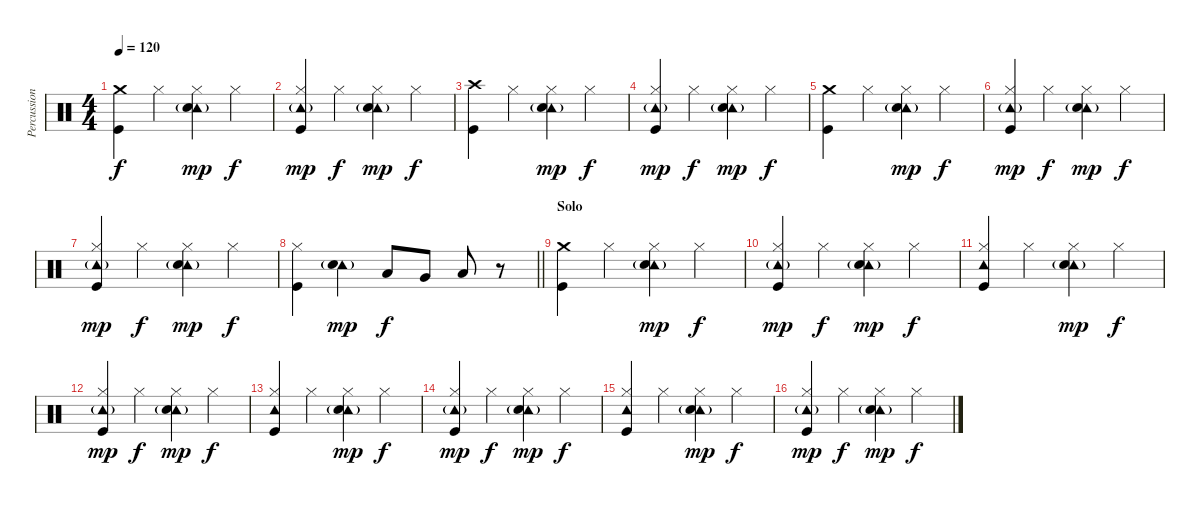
\track ("Percussioni" "Percussion") {instrument percussion}
\staff {score}
\articulation defaults
\ts (4 4)
\tempo 120
\clef neutral
\ks c
("Crash medium (hit)" "Kick (hit)").4{dy f} "Hi-Hat (closed)".4 ("Tambourine (hit)"{g} "Hi-Hat (closed)" "Snare (hit) 2").4{dy mp} "Hi-Hat (closed)".4{dy f} |
("Tambourine (hit)"{g} "Hi-Hat (closed)" "Kick (hit)").4{dy mp} "Hi-Hat (closed)".4{dy f} ("Tambourine (hit)"{g} "Hi-Hat (closed)" "Snare (hit) 2").4{dy mp} "Hi-Hat (closed)".4{dy f} |
("Crash high (hit)" "Kick (hit)").4 "Hi-Hat (closed)".4 ("Tambourine (hit)"{g} "Hi-Hat (closed)" "Snare (hit) 2").4{dy mp} "Hi-Hat (closed)".4{dy f} |
("Tambourine (hit)"{g} "Hi-Hat (closed)" "Kick (hit)").4{dy mp} "Hi-Hat (closed)".4{dy f} ("Tambourine (hit)"{g} "Hi-Hat (closed)" "Snare (hit) 2").4{dy mp} "Hi-Hat (closed)".4{dy f} |
("Crash medium (hit)" "Kick (hit)").4 "Hi-Hat (closed)".4 ("Tambourine (hit)"{g} "Hi-Hat (closed)" "Snare (hit) 2").4{dy mp} "Hi-Hat (closed)".4{dy f} |
("Tambourine (hit)"{g} "Hi-Hat (closed)" "Kick (hit)").4{dy mp} "Hi-Hat (closed)".4{dy f} ("Tambourine (hit)"{g} "Hi-Hat (closed)" "Snare (hit) 2").4{dy mp} "Hi-Hat (closed)".4{dy f} |
("Tambourine (hit)"{g} "Hi-Hat (closed)" "Kick (hit)").4{dy mp} "Hi-Hat (closed)".4{dy f} ("Tambourine (hit)"{g} "Hi-Hat (closed)" "Snare (hit) 2").4{dy mp} "Hi-Hat (closed)".4{dy f} |
\barLineRight lightlight
("Hi-Hat (closed)" "Kick (hit)").4 ("Tambourine (hit)"{g} "Snare (hit) 2").4{dy mp} "Low Tom (hit)".8{dy f} "Very Low Tom (hit)".8 "Low Floor Tom (hit)".8 r.8 |
\section ("" "Solo")
("Crash medium (hit)" "Kick (hit)").4 "Hi-Hat (closed)".4 ("Tambourine (hit)"{g} "Hi-Hat (closed)" "Snare (hit) 2").4{dy mp} "Hi-Hat (closed)".4{dy f} |
("Tambourine (hit)"{g} "Hi-Hat (closed)" "Kick (hit)").4{dy mp} "Hi-Hat (closed)".4{dy f} ("Tambourine (hit)"{g} "Hi-Hat (closed)" "Snare (hit) 2").4{dy mp} "Hi-Hat (closed)".4{dy f} |
("Tambourine (hit)" "Hi-Hat (closed)" "Kick (hit)").4 "Hi-Hat (closed)".4 ("Tambourine (hit)"{g} "Hi-Hat (closed)" "Snare (hit) 2").4{dy mp} "Hi-Hat (closed)".4{dy f} |
("Tambourine (hit)"{g} "Hi-Hat (closed)" "Kick (hit)").4{dy mp} "Hi-Hat (closed)".4{dy f} ("Tambourine (hit)"{g} "Hi-Hat (closed)" "Snare (hit) 2").4{dy mp} "Hi-Hat (closed)".4{dy f} |
("Tambourine (hit)" "Hi-Hat (closed)" "Kick (hit)").4 "Hi-Hat (closed)".4 ("Tambourine (hit)"{g} "Hi-Hat (closed)" "Snare (hit) 2").4{dy mp} "Hi-Hat (closed)".4{dy f} |
("Tambourine (hit)"{g} "Hi-Hat (closed)" "Kick (hit)").4{dy mp} "Hi-Hat (closed)".4{dy f} ("Tambourine (hit)"{g} "Hi-Hat (closed)" "Snare (hit) 2").4{dy mp} "Hi-Hat (closed)".4{dy f} |
("Tambourine (hit)" "Hi-Hat (closed)" "Kick (hit)").4 "Hi-Hat (closed)".4 ("Tambourine (hit)"{g} "Hi-Hat (closed)" "Snare (hit) 2").4{dy mp} "Hi-Hat (closed)".4{dy f} |
("Tambourine (hit)"{g} "Hi-Hat (closed)" "Kick (hit)").4{dy mp} "Hi-Hat (closed)".4{dy f} ("Tambourine (hit)"{g} "Hi-Hat (closed)" "Snare (hit) 2").4{dy mp} "Hi-Hat (closed)".4{dy f}
